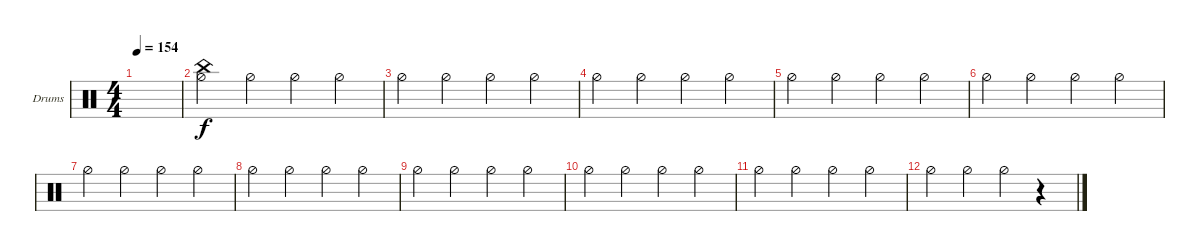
\defaultSystemsLayout 4
\bracketExtendMode groupsimilarinstruments
\firstSystemTrackNameOrientation horizontal
\otherSystemsTrackNameOrientation horizontal
\track ("Drumkit" "Drums") {instrument percussion}
\staff {score}
\articulation defaults
\ts (4 4)
\tempo 154
\clef neutral
\ks c
|
("Hi-Hat (half)" "China (hit)").4 "Hi-Hat (half)".4 "Hi-Hat (half)".4 "Hi-Hat (half)".4 |
"Hi-Hat (half)".4 "Hi-Hat (half)".4 "Hi-Hat (half)".4 "Hi-Hat (half)".4 |
"Hi-Hat (half)".4 "Hi-Hat (half)".4 "Hi-Hat (half)".4 "Hi-Hat (half)".4 |
"Hi-Hat (half)".4 "Hi-Hat (half)".4 "Hi-Hat (half)".4 "Hi-Hat (half)".4 |
"Hi-Hat (half)".4 "Hi-Hat (half)".4 "Hi-Hat (half)".4 "Hi-Hat (half)".4 |
"Hi-Hat (half)".4 "Hi-Hat (half)".4 "Hi-Hat (half)".4 "Hi-Hat (half)".4 |
"Hi-Hat (half)".4 "Hi-Hat (half)".4 "Hi-Hat (half)".4 "Hi-Hat (half)".4 |
"Hi-Hat (half)".4 "Hi-Hat (half)".4 "Hi-Hat (half)".4 "Hi-Hat (half)".4 |
"Hi-Hat (half)".4 "Hi-Hat (half)".4 "Hi-Hat (half)".4 "Hi-Hat (half)".4 |
"Hi-Hat (half)".4 "Hi-Hat (half)".4 "Hi-Hat (half)".4 "Hi-Hat (half)".4 |
"Hi-Hat (half)".4 "Hi-Hat (half)".4 "Hi-Hat (half)".4 r.4
